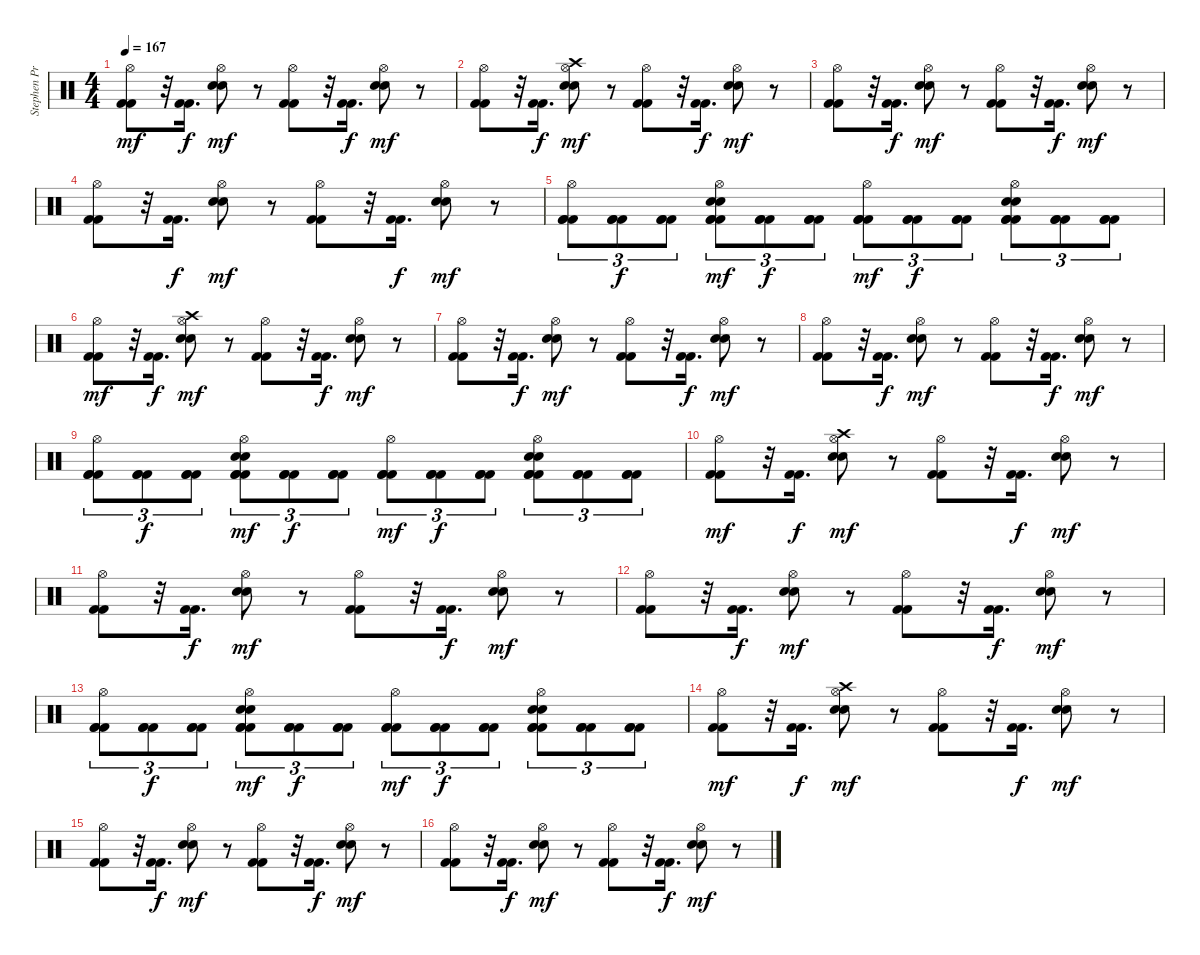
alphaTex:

\track ("Stephen Priestly  (Drums)" "Stephen Pr") {instrument percussion}
\staff {score}
\articulation defaults
\ts (4 4)
\tempo 167
\clef neutral
\ks c
("Hi-Hat (open)" "Kick (hit) 2" "Kick (hit) 2").8{dy mf} r.32 ("Kick (hit) 2" "Kick (hit) 2").16{d dy f} ("Hi-Hat (open)" "Electric Snare (hit)" "Electric Snare (hit)").8{dy mf} r.8 ("Hi-Hat (open)" "Kick (hit) 2" "Kick (hit) 2").8 r.32 ("Kick (hit) 2" "Kick (hit) 2").16{d dy f} ("Hi-Hat (open)" "Electric Snare (hit)" "Electric Snare (hit)").8{dy mf} r.8 |
("Hi-Hat (open)" "Kick (hit) 2" "Kick (hit) 2").8 r.32 ("Kick (hit) 2" "Kick (hit) 2").16{d dy f} ("Crash high (hit)" "Hi-Hat (open)" "Electric Snare (hit)" "Electric Snare (hit)").8{dy mf} r.8 ("Hi-Hat (open)" "Kick (hit) 2" "Kick (hit) 2").8 r.32 ("Kick (hit) 2" "Kick (hit) 2").16{d dy f} ("Hi-Hat (open)" "Electric Snare (hit)" "Electric Snare (hit)").8{dy mf} r.8 |
("Hi-Hat (open)" "Kick (hit) 2" "Kick (hit) 2").8 r.32 ("Kick (hit) 2" "Kick (hit) 2").16{d dy f} ("Hi-Hat (open)" "Electric Snare (hit)" "Electric Snare (hit)").8{dy mf} r.8 ("Hi-Hat (open)" "Kick (hit) 2" "Kick (hit) 2").8 r.32 ("Kick (hit) 2" "Kick (hit) 2").16{d dy f} ("Hi-Hat (open)" "Electric Snare (hit)" "Electric Snare (hit)").8{dy mf} r.8 |
("Hi-Hat (open)" "Kick (hit) 2" "Kick (hit) 2").8 r.32 ("Kick (hit) 2" "Kick (hit) 2").16{d dy f} ("Hi-Hat (open)" "Electric Snare (hit)" "Electric Snare (hit)").8{dy mf} r.8 ("Hi-Hat (open)" "Kick (hit) 2" "Kick (hit) 2").8 r.32 ("Kick (hit) 2" "Kick (hit) 2").16{d dy f} ("Hi-Hat (open)" "Electric Snare (hit)" "Electric Snare (hit)").8{dy mf} r.8 |
("Hi-Hat (open)" "Kick (hit) 2" "Kick (hit) 2" "Kick (hit) 2").8{tu (3 2)} ("Kick (hit) 2" "Kick (hit) 2" "Kick (hit) 2").8{tu (3 2) dy f} ("Kick (hit) 2" "Kick (hit) 2" "Kick (hit) 2").8{tu (3 2)} ("Electric Snare (hit)" "Hi-Hat (open)" "Electric Snare (hit)" "Kick (hit) 2" "Kick (hit) 2" "Kick (hit) 2").8{tu (3 2) dy mf} ("Kick (hit) 2" "Kick (hit) 2" "Kick (hit) 2").8{tu (3 2) dy f} ("Kick (hit) 2" "Kick (hit) 2" "Kick (hit) 2").8{tu (3 2)} ("Hi-Hat (open)" "Kick (hit) 2" "Kick (hit) 2" "Kick (hit) 2").8{tu (3 2) dy mf} ("Kick (hit) 2" "Kick (hit) 2" "Kick (hit) 2").8{tu (3 2) dy f} ("Kick (hit) 2" "Kick (hit) 2" "Kick (hit) 2").8{tu (3 2)} ("Electric Snare (hit)" "Hi-Hat (open)" "Electric Snare (hit)" "Kick (hit) 2" "Kick (hit) 2" "Kick (hit) 2").8{tu (3 2)} ("Kick (hit) 2" "Kick (hit) 2" "Kick (hit) 2").8{tu (3 2)} ("Kick (hit) 2" "Kick (hit) 2" "Kick (hit) 2").8{tu (3 2)} |
("Hi-Hat (open)" "Kick (hit) 2" "Kick (hit) 2").8{dy mf} r.32 ("Kick (hit) 2" "Kick (hit) 2").16{d dy f} ("Crash high (hit)" "Hi-Hat (open)" "Electric Snare (hit)" "Electric Snare (hit)").8{dy mf} r.8 ("Hi-Hat (open)" "Kick (hit) 2" "Kick (hit) 2").8 r.32 ("Kick (hit) 2" "Kick (hit) 2").16{d dy f} ("Hi-Hat (open)" "Electric Snare (hit)" "Electric Snare (hit)").8{dy mf} r.8 |
("Hi-Hat (open)" "Kick (hit) 2" "Kick (hit) 2").8 r.32 ("Kick (hit) 2" "Kick (hit) 2").16{d dy f} ("Hi-Hat (open)" "Electric Snare (hit)" "Electric Snare (hit)").8{dy mf} r.8 ("Hi-Hat (open)" "Kick (hit) 2" "Kick (hit) 2").8 r.32 ("Kick (hit) 2" "Kick (hit) 2").16{d dy f} ("Hi-Hat (open)" "Electric Snare (hit)" "Electric Snare (hit)").8{dy mf} r.8 |
("Hi-Hat (open)" "Kick (hit) 2" "Kick (hit) 2").8 r.32 ("Kick (hit) 2" "Kick (hit) 2").16{d dy f} ("Hi-Hat (open)" "Electric Snare (hit)" "Electric Snare (hit)").8{dy mf} r.8 ("Hi-Hat (open)" "Kick (hit) 2" "Kick (hit) 2").8 r.32 ("Kick (hit) 2" "Kick (hit) 2").16{d dy f} ("Hi-Hat (open)" "Electric Snare (hit)" "Electric Snare (hit)").8{dy mf} r.8 |
("Hi-Hat (open)" "Kick (hit) 2" "Kick (hit) 2" "Kick (hit) 2").8{tu (3 2)} ("Kick (hit) 2" "Kick (hit) 2" "Kick (hit) 2").8{tu (3 2) dy f} ("Kick (hit) 2" "Kick (hit) 2" "Kick (hit) 2").8{tu (3 2)} ("Electric Snare (hit)" "Hi-Hat (open)" "Electric Snare (hit)" "Kick (hit) 2" "Kick (hit) 2" "Kick (hit) 2").8{tu (3 2) dy mf} ("Kick (hit) 2" "Kick (hit) 2" "Kick (hit) 2").8{tu (3 2) dy f} ("Kick (hit) 2" "Kick (hit) 2" "Kick (hit) 2").8{tu (3 2)} ("Hi-Hat (open)" "Kick (hit) 2" "Kick (hit) 2" "Kick (hit) 2").8{tu (3 2) dy mf} ("Kick (hit) 2" "Kick (hit) 2" "Kick (hit) 2").8{tu (3 2) dy f} ("Kick (hit) 2" "Kick (hit) 2" "Kick (hit) 2").8{tu (3 2)} ("Electric Snare (hit)" "Hi-Hat (open)" "Electric Snare (hit)" "Kick (hit) 2" "Kick (hit) 2" "Kick (hit) 2").8{tu (3 2)} ("Kick (hit) 2" "Kick (hit) 2" "Kick (hit) 2").8{tu (3 2)} ("Kick (hit) 2" "Kick (hit) 2" "Kick (hit) 2").8{tu (3 2)} |
("Hi-Hat (open)" "Kick (hit) 2" "Kick (hit) 2").8{dy mf} r.32 ("Kick (hit) 2" "Kick (hit) 2").16{d dy f} ("Crash high (hit)" "Hi-Hat (open)" "Electric Snare (hit)" "Electric Snare (hit)").8{dy mf} r.8 ("Hi-Hat (open)" "Kick (hit) 2" "Kick (hit) 2").8 r.32 ("Kick (hit) 2" "Kick (hit) 2").16{d dy f} ("Hi-Hat (open)" "Electric Snare (hit)" "Electric Snare (hit)").8{dy mf} r.8 |
("Hi-Hat (open)" "Kick (hit) 2" "Kick (hit) 2").8 r.32 ("Kick (hit) 2" "Kick (hit) 2").16{d dy f} ("Hi-Hat (open)" "Electric Snare (hit)" "Electric Snare (hit)").8{dy mf} r.8 ("Hi-Hat (open)" "Kick (hit) 2" "Kick (hit) 2").8 r.32 ("Kick (hit) 2" "Kick (hit) 2").16{d dy f} ("Hi-Hat (open)" "Electric Snare (hit)" "Electric Snare (hit)").8{dy mf} r.8 |
("Hi-Hat (open)" "Kick (hit) 2" "Kick (hit) 2").8 r.32 ("Kick (hit) 2" "Kick (hit) 2").16{d dy f} ("Hi-Hat (open)" "Electric Snare (hit)" "Electric Snare (hit)").8{dy mf} r.8 ("Hi-Hat (open)" "Kick (hit) 2" "Kick (hit) 2").8 r.32 ("Kick (hit) 2" "Kick (hit) 2").16{d dy f} ("Hi-Hat (open)" "Electric Snare (hit)" "Electric Snare (hit)").8{dy mf} r.8 |
("Hi-Hat (open)" "Kick (hit) 2" "Kick (hit) 2" "Kick (hit) 2").8{tu (3 2)} ("Kick (hit) 2" "Kick (hit) 2" "Kick (hit) 2").8{tu (3 2) dy f} ("Kick (hit) 2" "Kick (hit) 2" "Kick (hit) 2").8{tu (3 2)} ("Electric Snare (hit)" "Hi-Hat (open)" "Electric Snare (hit)" "Kick (hit) 2" "Kick (hit) 2" "Kick (hit) 2").8{tu (3 2) dy mf} ("Kick (hit) 2" "Kick (hit) 2" "Kick (hit) 2").8{tu (3 2) dy f} ("Kick (hit) 2" "Kick (hit) 2" "Kick (hit) 2").8{tu (3 2)} ("Hi-Hat (open)" "Kick (hit) 2" "Kick (hit) 2" "Kick (hit) 2").8{tu (3 2) dy mf} ("Kick (hit) 2" "Kick (hit) 2" "Kick (hit) 2").8{tu (3 2) dy f} ("Kick (hit) 2" "Kick (hit) 2" "Kick (hit) 2").8{tu (3 2)} ("Electric Snare (hit)" "Hi-Hat (open)" "Electric Snare (hit)" "Kick (hit) 2" "Kick (hit) 2" "Kick (hit) 2").8{tu (3 2)} ("Kick (hit) 2" "Kick (hit) 2" "Kick (hit) 2").8{tu (3 2)} ("Kick (hit) 2" "Kick (hit) 2" "Kick (hit) 2").8{tu (3 2)} |
("Hi-Hat (open)" "Kick (hit) 2" "Kick (hit) 2").8{dy mf} r.32 ("Kick (hit) 2" "Kick (hit) 2").16{d dy f} ("Crash high (hit)" "Hi-Hat (open)" "Electric Snare (hit)" "Electric Snare (hit)").8{dy mf} r.8 ("Hi-Hat (open)" "Kick (hit) 2" "Kick (hit) 2").8 r.32 ("Kick (hit) 2" "Kick (hit) 2").16{d dy f} ("Hi-Hat (open)" "Electric Snare (hit)" "Electric Snare (hit)").8{dy mf} r.8 |
("Hi-Hat (open)" "Kick (hit) 2" "Kick (hit) 2").8 r.32 ("Kick (hit) 2" "Kick (hit) 2").16{d dy f} ("Hi-Hat (open)" "Electric Snare (hit)" "Electric Snare (hit)").8{dy mf} r.8 ("Hi-Hat (open)" "Kick (hit) 2" "Kick (hit) 2").8 r.32 ("Kick (hit) 2" "Kick (hit) 2").16{d dy f} ("Hi-Hat (open)" "Electric Snare (hit)" "Electric Snare (hit)").8{dy mf} r.8 |
("Hi-Hat (open)" "Kick (hit) 2" "Kick (hit) 2").8 r.32 ("Kick (hit) 2" "Kick (hit) 2").16{d dy f} ("Hi-Hat (open)" "Electric Snare (hit)" "Electric Snare (hit)").8{dy mf} r.8 ("Hi-Hat (open)" "Kick (hit) 2" "Kick (hit) 2").8 r.32 ("Kick (hit) 2" "Kick (hit) 2").16{d dy f} ("Hi-Hat (open)" "Electric Snare (hit)" "Electric Snare (hit)").8{dy mf} r.8
